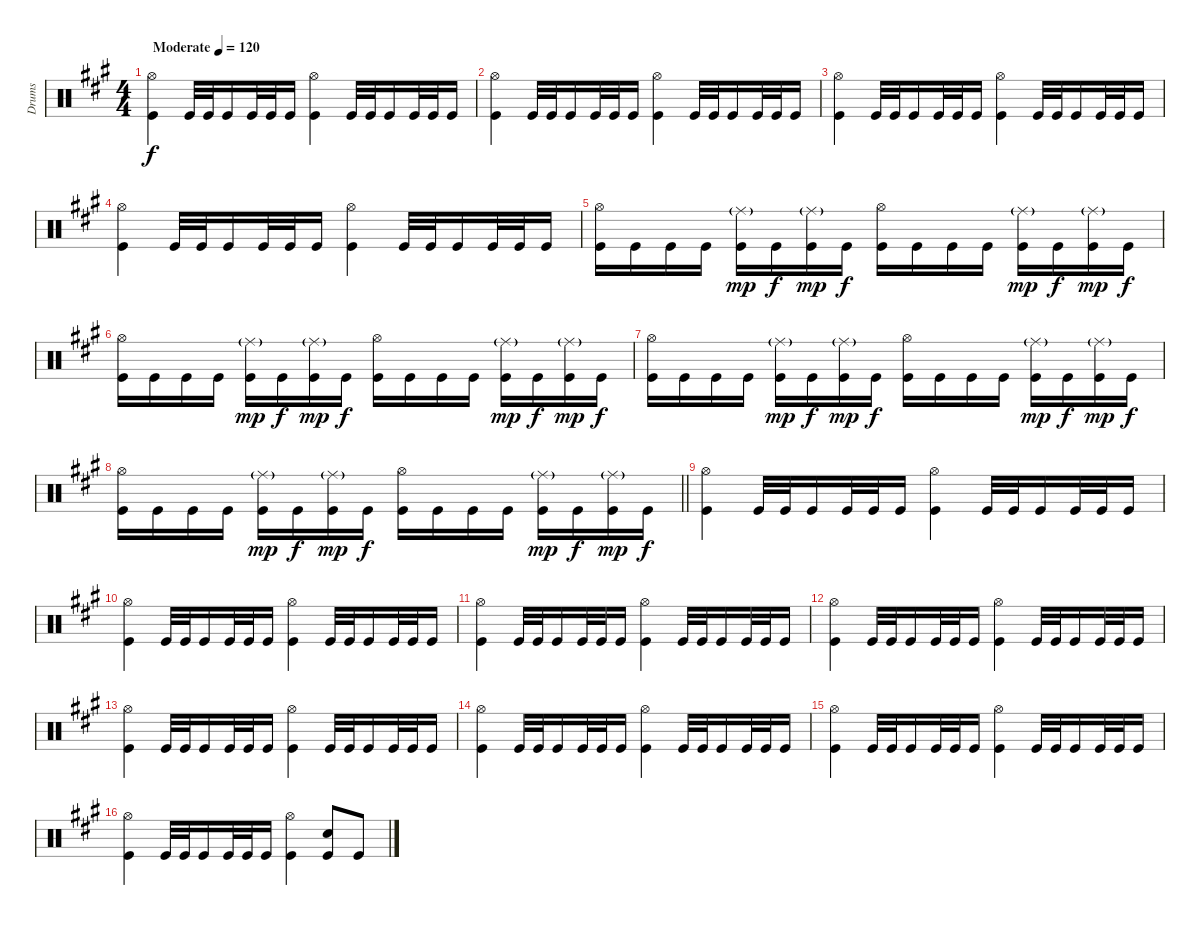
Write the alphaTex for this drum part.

\track ("Drums" "Drums") {instrument percussion}
\staff {score}
\articulation defaults
\ts (4 4)
\tempo (120 "Moderate")
\clef neutral
\ks a
("Hi-Hat (open)" "Kick (hit)").4{dy f} "Kick (hit)".32 "Kick (hit)".32 "Kick (hit)".16 "Kick (hit)".32 "Kick (hit)".32 "Kick (hit)".16 ("Hi-Hat (open)" "Kick (hit)").4 "Kick (hit)".32 "Kick (hit)".32 "Kick (hit)".16 "Kick (hit)".32 "Kick (hit)".32 "Kick (hit)".16 |
("Hi-Hat (open)" "Kick (hit)").4 "Kick (hit)".32 "Kick (hit)".32 "Kick (hit)".16 "Kick (hit)".32 "Kick (hit)".32 "Kick (hit)".16 ("Hi-Hat (open)" "Kick (hit)").4 "Kick (hit)".32 "Kick (hit)".32 "Kick (hit)".16 "Kick (hit)".32 "Kick (hit)".32 "Kick (hit)".16 |
("Hi-Hat (open)" "Kick (hit)").4 "Kick (hit)".32 "Kick (hit)".32 "Kick (hit)".16 "Kick (hit)".32 "Kick (hit)".32 "Kick (hit)".16 ("Hi-Hat (open)" "Kick (hit)").4 "Kick (hit)".32 "Kick (hit)".32 "Kick (hit)".16 "Kick (hit)".32 "Kick (hit)".32 "Kick (hit)".16 |
("Hi-Hat (open)" "Kick (hit)").4 "Kick (hit)".32 "Kick (hit)".32 "Kick (hit)".16 "Kick (hit)".32 "Kick (hit)".32 "Kick (hit)".16 ("Hi-Hat (open)" "Kick (hit)").4 "Kick (hit)".32 "Kick (hit)".32 "Kick (hit)".16 "Kick (hit)".32 "Kick (hit)".32 "Kick (hit)".16 |
("Hi-Hat (open)" "Kick (hit)").16 "Kick (hit)".16 "Kick (hit)".16 "Kick (hit)".16 ("Ride (middle)"{g} "Kick (hit)").16{dy mp} "Kick (hit)".16{dy f} ("Ride (middle)"{g} "Kick (hit)").16{dy mp} "Kick (hit)".16{dy f} ("Hi-Hat (open)" "Kick (hit)").16 "Kick (hit)".16 "Kick (hit)".16 "Kick (hit)".16 ("Ride (middle)"{g} "Kick (hit)").16{dy mp} "Kick (hit)".16{dy f} ("Ride (middle)"{g} "Kick (hit)").16{dy mp} "Kick (hit)".16{dy f} |
("Hi-Hat (open)" "Kick (hit)").16 "Kick (hit)".16 "Kick (hit)".16 "Kick (hit)".16 ("Ride (middle)"{g} "Kick (hit)").16{dy mp} "Kick (hit)".16{dy f} ("Ride (middle)"{g} "Kick (hit)").16{dy mp} "Kick (hit)".16{dy f} ("Hi-Hat (open)" "Kick (hit)").16 "Kick (hit)".16 "Kick (hit)".16 "Kick (hit)".16 ("Ride (middle)"{g} "Kick (hit)").16{dy mp} "Kick (hit)".16{dy f} ("Ride (middle)"{g} "Kick (hit)").16{dy mp} "Kick (hit)".16{dy f} |
("Hi-Hat (open)" "Kick (hit)").16 "Kick (hit)".16 "Kick (hit)".16 "Kick (hit)".16 ("Ride (middle)"{g} "Kick (hit)").16{dy mp} "Kick (hit)".16{dy f} ("Ride (middle)"{g} "Kick (hit)").16{dy mp} "Kick (hit)".16{dy f} ("Hi-Hat (open)" "Kick (hit)").16 "Kick (hit)".16 "Kick (hit)".16 "Kick (hit)".16 ("Ride (middle)"{g} "Kick (hit)").16{dy mp} "Kick (hit)".16{dy f} ("Ride (middle)"{g} "Kick (hit)").16{dy mp} "Kick (hit)".16{dy f} |
\barLineRight lightlight
("Hi-Hat (open)" "Kick (hit)").16 "Kick (hit)".16 "Kick (hit)".16 "Kick (hit)".16 ("Ride (middle)"{g} "Kick (hit)").16{dy mp} "Kick (hit)".16{dy f} ("Ride (middle)"{g} "Kick (hit)").16{dy mp} "Kick (hit)".16{dy f} ("Hi-Hat (open)" "Kick (hit)").16 "Kick (hit)".16 "Kick (hit)".16 "Kick (hit)".16 ("Ride (middle)"{g} "Kick (hit)").16{dy mp} "Kick (hit)".16{dy f} ("Ride (middle)"{g} "Kick (hit)").16{dy mp} "Kick (hit)".16{dy f} |
\section ("" "")
("Hi-Hat (open)" "Kick (hit)").4 "Kick (hit)".32 "Kick (hit)".32 "Kick (hit)".16 "Kick (hit)".32 "Kick (hit)".32 "Kick (hit)".16 ("Hi-Hat (open)" "Kick (hit)").4 "Kick (hit)".32 "Kick (hit)".32 "Kick (hit)".16 "Kick (hit)".32 "Kick (hit)".32 "Kick (hit)".16 |
("Hi-Hat (open)" "Kick (hit)").4 "Kick (hit)".32 "Kick (hit)".32 "Kick (hit)".16 "Kick (hit)".32 "Kick (hit)".32 "Kick (hit)".16 ("Hi-Hat (open)" "Kick (hit)").4 "Kick (hit)".32 "Kick (hit)".32 "Kick (hit)".16 "Kick (hit)".32 "Kick (hit)".32 "Kick (hit)".16 |
("Hi-Hat (open)" "Kick (hit)").4 "Kick (hit)".32 "Kick (hit)".32 "Kick (hit)".16 "Kick (hit)".32 "Kick (hit)".32 "Kick (hit)".16 ("Hi-Hat (open)" "Kick (hit)").4 "Kick (hit)".32 "Kick (hit)".32 "Kick (hit)".16 "Kick (hit)".32 "Kick (hit)".32 "Kick (hit)".16 |
("Hi-Hat (open)" "Kick (hit)").4 "Kick (hit)".32 "Kick (hit)".32 "Kick (hit)".16 "Kick (hit)".32 "Kick (hit)".32 "Kick (hit)".16 ("Hi-Hat (open)" "Kick (hit)").4 "Kick (hit)".32 "Kick (hit)".32 "Kick (hit)".16 "Kick (hit)".32 "Kick (hit)".32 "Kick (hit)".16 |
("Hi-Hat (open)" "Kick (hit)").4 "Kick (hit)".32 "Kick (hit)".32 "Kick (hit)".16 "Kick (hit)".32 "Kick (hit)".32 "Kick (hit)".16 ("Hi-Hat (open)" "Kick (hit)").4 "Kick (hit)".32 "Kick (hit)".32 "Kick (hit)".16 "Kick (hit)".32 "Kick (hit)".32 "Kick (hit)".16 |
("Hi-Hat (open)" "Kick (hit)").4 "Kick (hit)".32 "Kick (hit)".32 "Kick (hit)".16 "Kick (hit)".32 "Kick (hit)".32 "Kick (hit)".16 ("Hi-Hat (open)" "Kick (hit)").4 "Kick (hit)".32 "Kick (hit)".32 "Kick (hit)".16 "Kick (hit)".32 "Kick (hit)".32 "Kick (hit)".16 |
("Hi-Hat (open)" "Kick (hit)").4 "Kick (hit)".32 "Kick (hit)".32 "Kick (hit)".16 "Kick (hit)".32 "Kick (hit)".32 "Kick (hit)".16 ("Hi-Hat (open)" "Kick (hit)").4 "Kick (hit)".32 "Kick (hit)".32 "Kick (hit)".16 "Kick (hit)".32 "Kick (hit)".32 "Kick (hit)".16 |
("Hi-Hat (open)" "Kick (hit)").4 "Kick (hit)".32 "Kick (hit)".32 "Kick (hit)".16 "Kick (hit)".32 "Kick (hit)".32 "Kick (hit)".16 ("Hi-Hat (open)" "Kick (hit)").4 ("Snare (hit) 2" "Kick (hit)").8 "Kick (hit)".8
